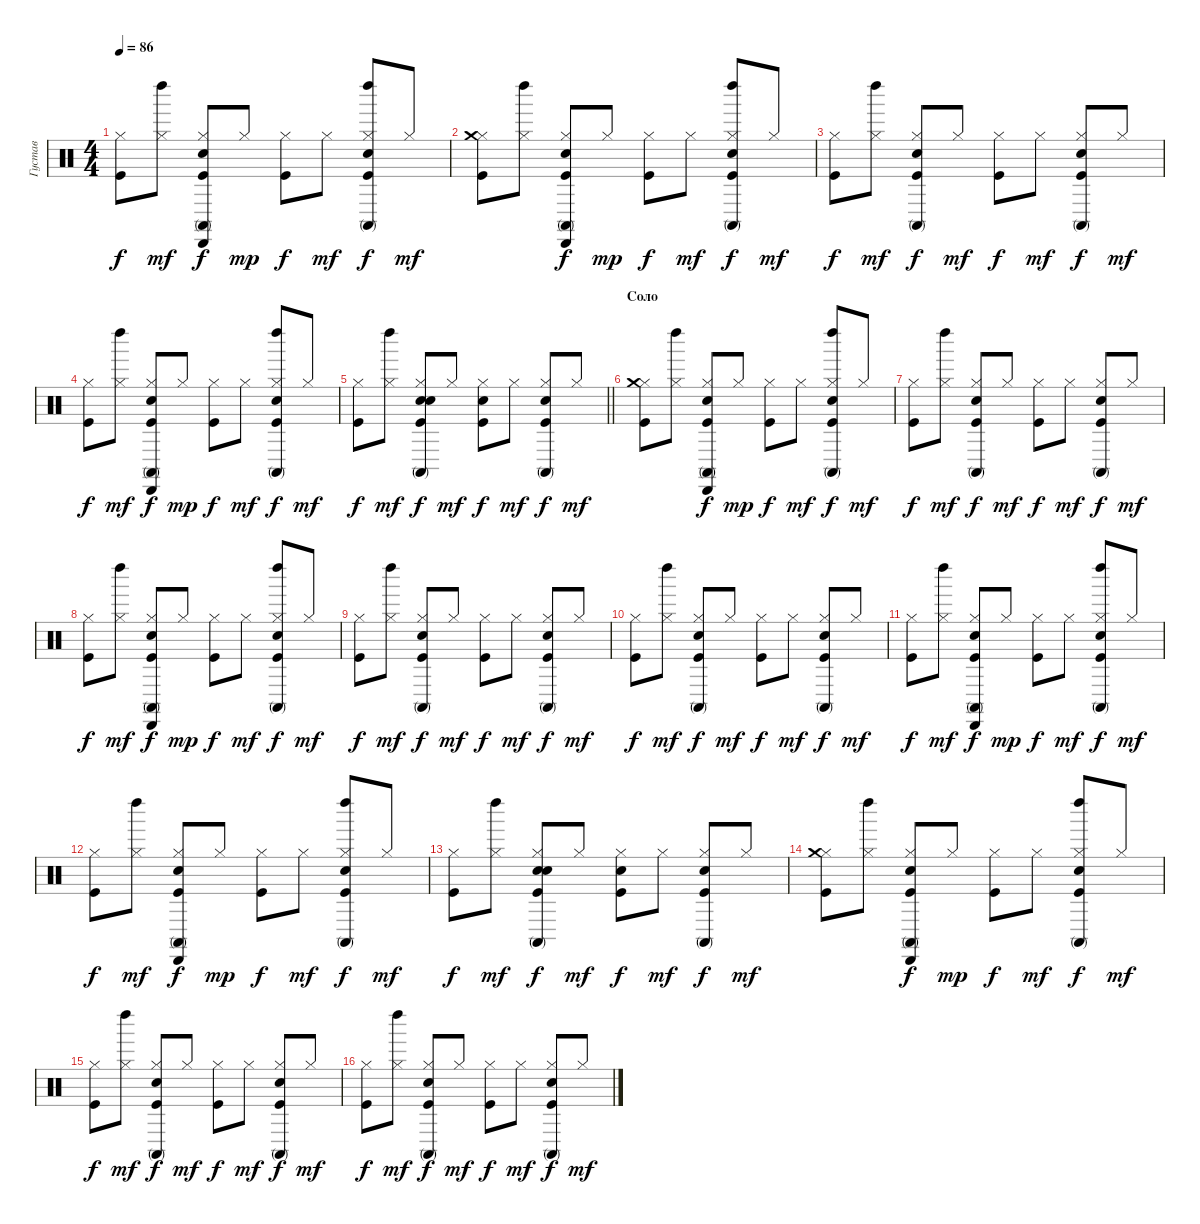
\track ("Густав" "Густав") {instrument percussion}
\staff {score}
\articulation defaults
\ts (4 4)
\tempo 86
\clef neutral
\ks c
("Hi-Hat (closed)" "Kick (hit)").8{dy f} ("Hi-Hat (closed)" "Left Maraca (hit)").8{dy mf} ("Cabasa (hit)" "Snare (hit) 2" "Conga high (mute)" "Hi-Hat (closed)" "Kick (hit)").8{dy f} "Hi-Hat (closed)".8{dy mp} ("Hi-Hat (closed)" "Kick (hit)").8{dy f} "Hi-Hat (closed)".8{dy mf} ("Left Maraca (hit)" "Snare (hit) 2" "Conga high (mute)" "Hi-Hat (closed)" "Kick (hit)").8{dy f} "Hi-Hat (closed)".8{dy mf} |
("Hi-Hat (closed)" "Crash medium (hit)" "Kick (hit)").8 ("Hi-Hat (closed)" "Left Maraca (hit)").8 ("Cabasa (hit)" "Snare (hit) 2" "Conga high (mute)" "Hi-Hat (closed)" "Kick (hit)").8{dy f} "Hi-Hat (closed)".8{dy mp} ("Hi-Hat (closed)" "Kick (hit)").8{dy f} "Hi-Hat (closed)".8{dy mf} ("Left Maraca (hit)" "Snare (hit) 2" "Conga high (mute)" "Hi-Hat (closed)" "Kick (hit)").8{dy f} "Hi-Hat (closed)".8{dy mf} |
("Hi-Hat (closed)" "Kick (hit)").8{dy f} ("Hi-Hat (closed)" "Left Maraca (hit)").8{dy mf} ("Snare (hit) 2" "Conga high (mute)" "Hi-Hat (closed)" "Kick (hit)").8{dy f} "Hi-Hat (closed)".8{dy mf} ("Hi-Hat (closed)" "Kick (hit)").8{dy f} "Hi-Hat (closed)".8{dy mf} ("Snare (hit) 2" "Conga high (mute)" "Hi-Hat (closed)" "Kick (hit)").8{dy f} "Hi-Hat (closed)".8{dy mf} |
("Hi-Hat (closed)" "Kick (hit)").8{dy f} ("Hi-Hat (closed)" "Left Maraca (hit)").8{dy mf} ("Cabasa (hit)" "Snare (hit) 2" "Conga high (mute)" "Hi-Hat (closed)" "Kick (hit)").8{dy f} "Hi-Hat (closed)".8{dy mp} ("Hi-Hat (closed)" "Kick (hit)").8{dy f} "Hi-Hat (closed)".8{dy mf} ("Left Maraca (hit)" "Snare (hit) 2" "Conga high (mute)" "Hi-Hat (closed)" "Kick (hit)").8{dy f} "Hi-Hat (closed)".8{dy mf} |
\barLineRight lightlight
("Hi-Hat (closed)" "Kick (hit)").8{dy f} ("Hi-Hat (closed)" "Left Maraca (hit)").8{dy mf} ("Snare (hit) 2" "Conga high (mute)" "Hi-Hat (closed)" "Kick (hit)" "Snare (hit) 2").8{dy f} "Hi-Hat (closed)".8{dy mf} ("Hi-Hat (closed)" "Kick (hit)" "Snare (hit) 2").8{dy f} "Hi-Hat (closed)".8{dy mf} ("Snare (hit) 2" "Conga high (mute)" "Hi-Hat (closed)" "Kick (hit)").8{dy f} "Hi-Hat (closed)".8{dy mf} |
\section ("" "Соло")
("Hi-Hat (closed)" "Crash medium (hit)" "Kick (hit)").8 ("Hi-Hat (closed)" "Left Maraca (hit)").8 ("Cabasa (hit)" "Snare (hit) 2" "Conga high (mute)" "Hi-Hat (closed)" "Kick (hit)").8{dy f} "Hi-Hat (closed)".8{dy mp} ("Hi-Hat (closed)" "Kick (hit)").8{dy f} "Hi-Hat (closed)".8{dy mf} ("Left Maraca (hit)" "Snare (hit) 2" "Conga high (mute)" "Hi-Hat (closed)" "Kick (hit)").8{dy f} "Hi-Hat (closed)".8{dy mf} |
("Hi-Hat (closed)" "Kick (hit)").8{dy f} ("Hi-Hat (closed)" "Left Maraca (hit)").8{dy mf} ("Snare (hit) 2" "Conga high (mute)" "Hi-Hat (closed)" "Kick (hit)").8{dy f} "Hi-Hat (closed)".8{dy mf} ("Hi-Hat (closed)" "Kick (hit)").8{dy f} "Hi-Hat (closed)".8{dy mf} ("Snare (hit) 2" "Conga high (mute)" "Hi-Hat (closed)" "Kick (hit)").8{dy f} "Hi-Hat (closed)".8{dy mf} |
("Hi-Hat (closed)" "Kick (hit)").8{dy f} ("Hi-Hat (closed)" "Left Maraca (hit)").8{dy mf} ("Cabasa (hit)" "Snare (hit) 2" "Conga high (mute)" "Hi-Hat (closed)" "Kick (hit)").8{dy f} "Hi-Hat (closed)".8{dy mp} ("Hi-Hat (closed)" "Kick (hit)").8{dy f} "Hi-Hat (closed)".8{dy mf} ("Left Maraca (hit)" "Snare (hit) 2" "Conga high (mute)" "Hi-Hat (closed)" "Kick (hit)").8{dy f} "Hi-Hat (closed)".8{dy mf} |
("Hi-Hat (closed)" "Kick (hit)").8{dy f} ("Hi-Hat (closed)" "Left Maraca (hit)").8{dy mf} ("Snare (hit) 2" "Conga high (mute)" "Hi-Hat (closed)" "Kick (hit)").8{dy f} "Hi-Hat (closed)".8{dy mf} ("Hi-Hat (closed)" "Kick (hit)").8{dy f} "Hi-Hat (closed)".8{dy mf} ("Snare (hit) 2" "Conga high (mute)" "Hi-Hat (closed)" "Kick (hit)").8{dy f} "Hi-Hat (closed)".8{dy mf} |
("Hi-Hat (closed)" "Kick (hit)").8{dy f} ("Hi-Hat (closed)" "Left Maraca (hit)").8{dy mf} ("Snare (hit) 2" "Conga high (mute)" "Hi-Hat (closed)" "Kick (hit)").8{dy f} "Hi-Hat (closed)".8{dy mf} ("Hi-Hat (closed)" "Kick (hit)").8{dy f} "Hi-Hat (closed)".8{dy mf} ("Snare (hit) 2" "Conga high (mute)" "Hi-Hat (closed)" "Kick (hit)").8{dy f} "Hi-Hat (closed)".8{dy mf} |
("Hi-Hat (closed)" "Kick (hit)").8{dy f} ("Hi-Hat (closed)" "Left Maraca (hit)").8{dy mf} ("Cabasa (hit)" "Snare (hit) 2" "Conga high (mute)" "Hi-Hat (closed)" "Kick (hit)").8{dy f} "Hi-Hat (closed)".8{dy mp} ("Hi-Hat (closed)" "Kick (hit)").8{dy f} "Hi-Hat (closed)".8{dy mf} ("Left Maraca (hit)" "Snare (hit) 2" "Conga high (mute)" "Hi-Hat (closed)" "Kick (hit)").8{dy f} "Hi-Hat (closed)".8{dy mf} |
("Hi-Hat (closed)" "Kick (hit)").8{dy f} ("Hi-Hat (closed)" "Left Maraca (hit)").8{dy mf} ("Cabasa (hit)" "Snare (hit) 2" "Conga high (mute)" "Hi-Hat (closed)" "Kick (hit)").8{dy f} "Hi-Hat (closed)".8{dy mp} ("Hi-Hat (closed)" "Kick (hit)").8{dy f} "Hi-Hat (closed)".8{dy mf} ("Left Maraca (hit)" "Snare (hit) 2" "Conga high (mute)" "Hi-Hat (closed)" "Kick (hit)").8{dy f} "Hi-Hat (closed)".8{dy mf} |
("Hi-Hat (closed)" "Kick (hit)").8{dy f} ("Hi-Hat (closed)" "Left Maraca (hit)").8{dy mf} ("Snare (hit) 2" "Conga high (mute)" "Hi-Hat (closed)" "Kick (hit)" "Snare (hit) 2").8{dy f} "Hi-Hat (closed)".8{dy mf} ("Hi-Hat (closed)" "Kick (hit)" "Snare (hit) 2").8{dy f} "Hi-Hat (closed)".8{dy mf} ("Snare (hit) 2" "Conga high (mute)" "Hi-Hat (closed)" "Kick (hit)").8{dy f} "Hi-Hat (closed)".8{dy mf} |
("Hi-Hat (closed)" "Crash medium (hit)" "Kick (hit)").8 ("Hi-Hat (closed)" "Left Maraca (hit)").8 ("Cabasa (hit)" "Snare (hit) 2" "Conga high (mute)" "Hi-Hat (closed)" "Kick (hit)").8{dy f} "Hi-Hat (closed)".8{dy mp} ("Hi-Hat (closed)" "Kick (hit)").8{dy f} "Hi-Hat (closed)".8{dy mf} ("Left Maraca (hit)" "Snare (hit) 2" "Conga high (mute)" "Hi-Hat (closed)" "Kick (hit)").8{dy f} "Hi-Hat (closed)".8{dy mf} |
("Hi-Hat (closed)" "Kick (hit)").8{dy f} ("Hi-Hat (closed)" "Left Maraca (hit)").8{dy mf} ("Snare (hit) 2" "Conga high (mute)" "Hi-Hat (closed)" "Kick (hit)").8{dy f} "Hi-Hat (closed)".8{dy mf} ("Hi-Hat (closed)" "Kick (hit)").8{dy f} "Hi-Hat (closed)".8{dy mf} ("Snare (hit) 2" "Conga high (mute)" "Hi-Hat (closed)" "Kick (hit)").8{dy f} "Hi-Hat (closed)".8{dy mf} |
("Hi-Hat (closed)" "Kick (hit)").8{dy f} ("Hi-Hat (closed)" "Left Maraca (hit)").8{dy mf} ("Snare (hit) 2" "Conga high (mute)" "Hi-Hat (closed)" "Kick (hit)").8{dy f} "Hi-Hat (closed)".8{dy mf} ("Hi-Hat (closed)" "Kick (hit)").8{dy f} "Hi-Hat (closed)".8{dy mf} ("Snare (hit) 2" "Conga high (mute)" "Hi-Hat (closed)" "Kick (hit)").8{dy f} "Hi-Hat (closed)".8{dy mf}
